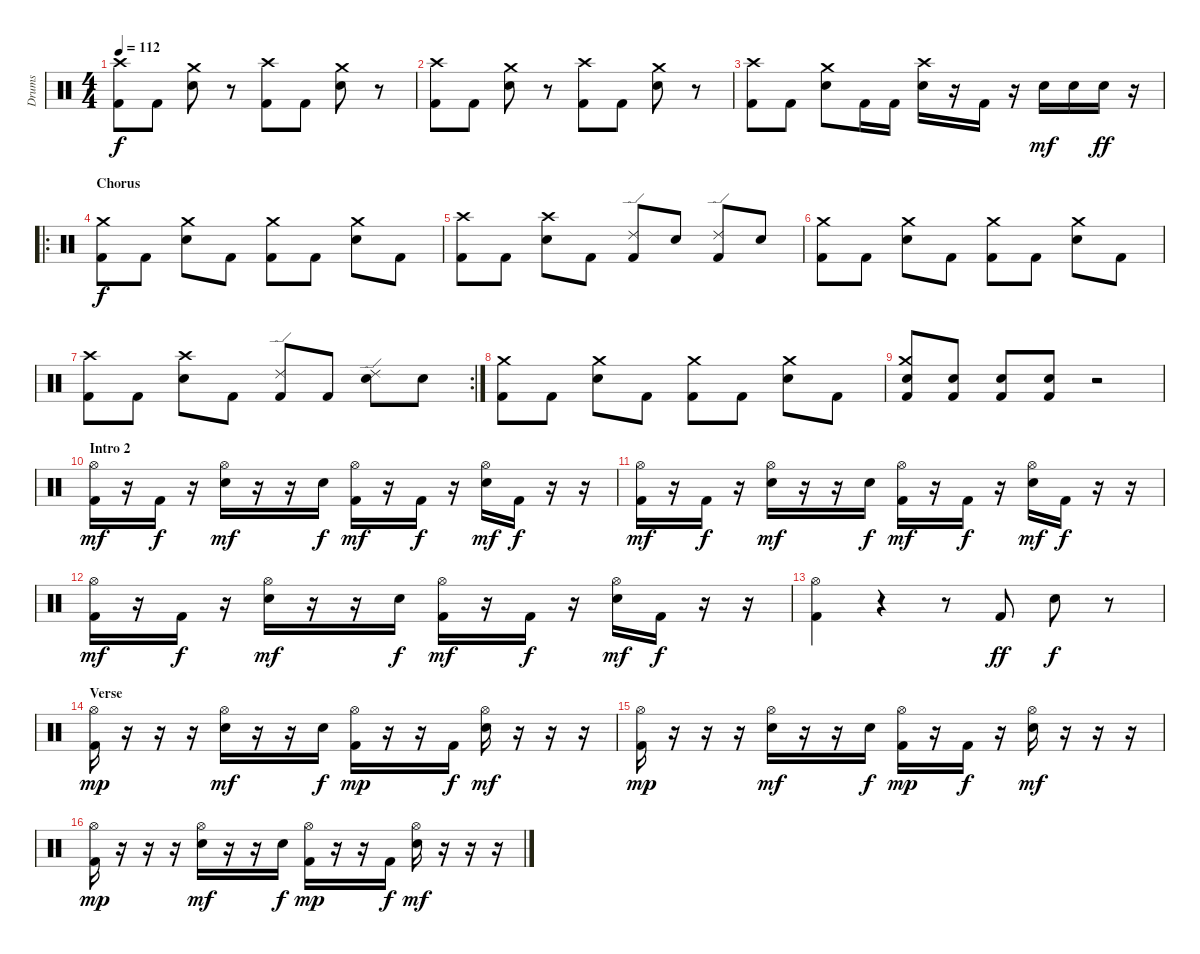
\track ("Drums" "Drums") {instrument percussion}
\staff {score}
\articulation defaults
\ts (4 4)
\tempo 112
\clef neutral
\ks c
("Crash high (hit)" "Kick (hit) 2").8{dy f} "Kick (hit) 2".8 ("Crash medium (hit)" "Snare (hit) 2").8 r.8 ("Crash high (hit)" "Kick (hit) 2").8 "Kick (hit) 2".8 ("Crash medium (hit)" "Snare (hit) 2").8 r.8 |
("Crash high (hit)" "Kick (hit) 2").8 "Kick (hit) 2".8 ("Crash medium (hit)" "Snare (hit) 2").8 r.8 ("Crash high (hit)" "Kick (hit) 2").8 "Kick (hit) 2".8 ("Crash medium (hit)" "Snare (hit) 2").8 r.8 |
("Crash high (hit)" "Kick (hit) 2").8 "Kick (hit) 2".8 ("Crash medium (hit)" "Snare (hit) 2").8 "Kick (hit) 2".16 "Kick (hit) 2".16 ("Crash high (hit)" "Snare (hit) 2").16 r.16 "Kick (hit) 2".16 r.16 "Snare (hit) 2".16{dy mf} "Snare (hit) 2".16 "Snare (hit) 2".16{dy ff} r.16 |
\ro
\section ("" "Chorus")
("Crash medium (hit)" "Kick (hit) 2").8{dy f} "Kick (hit) 2".8 ("Crash medium (hit)" "Snare (hit) 2").8 "Kick (hit) 2".8 ("Crash medium (hit)" "Kick (hit) 2").8 "Kick (hit) 2".8 ("Crash medium (hit)" "Snare (hit) 2").8 "Kick (hit) 2".8 |
("Crash high (hit)" "Kick (hit) 2").8 "Kick (hit) 2".8 ("Crash high (hit)" "Snare (hit) 2").8 "Kick (hit) 2".8 ("Ride (edge) 2" "Kick (hit) 2").8 "Snare (hit) 2".8 ("Ride (edge) 2" "Kick (hit) 2").8 "Snare (hit) 2".8 |
("Crash medium (hit)" "Kick (hit) 2").8 "Kick (hit) 2".8 ("Crash medium (hit)" "Snare (hit) 2").8 "Kick (hit) 2".8 ("Crash medium (hit)" "Kick (hit) 2").8 "Kick (hit) 2".8 ("Crash medium (hit)" "Snare (hit) 2").8 "Kick (hit) 2".8 |
\rc 2
("Crash high (hit)" "Kick (hit) 2").8 "Kick (hit) 2".8 ("Crash high (hit)" "Snare (hit) 2").8 "Kick (hit) 2".8 ("Ride (edge) 2" "Kick (hit) 2").8 "Kick (hit) 2".8 ("Ride (edge) 2" "Snare (hit) 2").8 "Snare (hit) 2".8 |
("Crash medium (hit)" "Kick (hit) 2").8 "Kick (hit) 2".8 ("Crash medium (hit)" "Snare (hit) 2").8 "Kick (hit) 2".8 ("Crash medium (hit)" "Kick (hit) 2").8 "Kick (hit) 2".8 ("Crash medium (hit)" "Snare (hit) 2").8 "Kick (hit) 2".8 |
("Crash medium (hit)" "Snare (hit) 2" "Kick (hit) 2").8 ("Snare (hit) 2" "Kick (hit) 2").8 ("Snare (hit) 2" "Kick (hit) 2").8 ("Snare (hit) 2" "Kick (hit) 2").8 r.2 |
\section ("" "Intro 2")
("Hi-Hat (open)" "Kick (hit) 2").16{dy mf} r.16 "Kick (hit) 2".16{dy f} r.16 ("Hi-Hat (open)" "Snare (hit) 2").16{dy mf} r.16 r.16 "Snare (hit) 2".16{dy f} ("Hi-Hat (open)" "Kick (hit) 2").16{dy mf} r.16 "Kick (hit) 2".16{dy f} r.16 ("Hi-Hat (open)" "Snare (hit) 2").16{dy mf} "Kick (hit) 2".16{dy f} r.16 r.16 |
("Hi-Hat (open)" "Kick (hit) 2").16{dy mf} r.16 "Kick (hit) 2".16{dy f} r.16 ("Hi-Hat (open)" "Snare (hit) 2").16{dy mf} r.16 r.16 "Snare (hit) 2".16{dy f} ("Hi-Hat (open)" "Kick (hit) 2").16{dy mf} r.16 "Kick (hit) 2".16{dy f} r.16 ("Hi-Hat (open)" "Snare (hit) 2").16{dy mf} "Kick (hit) 2".16{dy f} r.16 r.16 |
("Hi-Hat (open)" "Kick (hit) 2").16{dy mf} r.16 "Kick (hit) 2".16{dy f} r.16 ("Hi-Hat (open)" "Snare (hit) 2").16{dy mf} r.16 r.16 "Snare (hit) 2".16{dy f} ("Hi-Hat (open)" "Kick (hit) 2").16{dy mf} r.16 "Kick (hit) 2".16{dy f} r.16 ("Hi-Hat (open)" "Snare (hit) 2").16{dy mf} "Kick (hit) 2".16{dy f} r.16 r.16 |
("Hi-Hat (open)" "Kick (hit) 2").4 r.4 r.8 "Kick (hit) 2".8{dy ff} "Snare (hit) 2".8{dy f} r.8 |
\section ("" "Verse")
("Hi-Hat (open)" "Kick (hit) 2").16{dy mp} r.16 r.16 r.16 ("Hi-Hat (open)" "Snare (hit) 2").16{dy mf} r.16 r.16 "Snare (hit) 2".16{dy f} ("Hi-Hat (open)" "Kick (hit) 2").16{dy mp} r.16 r.16 "Kick (hit) 2".16{dy f} ("Hi-Hat (open)" "Snare (hit) 2").16{dy mf} r.16 r.16 r.16 |
("Hi-Hat (open)" "Kick (hit) 2").16{dy mp} r.16 r.16 r.16 ("Hi-Hat (open)" "Snare (hit) 2").16{dy mf} r.16 r.16 "Snare (hit) 2".16{dy f} ("Hi-Hat (open)" "Kick (hit) 2").16{dy mp} r.16 "Kick (hit) 2".16{dy f} r.16 ("Hi-Hat (open)" "Snare (hit) 2").16{dy mf} r.16 r.16 r.16 |
("Hi-Hat (open)" "Kick (hit) 2").16{dy mp} r.16 r.16 r.16 ("Hi-Hat (open)" "Snare (hit) 2").16{dy mf} r.16 r.16 "Snare (hit) 2".16{dy f} ("Hi-Hat (open)" "Kick (hit) 2").16{dy mp} r.16 r.16 "Kick (hit) 2".16{dy f} ("Hi-Hat (open)" "Snare (hit) 2").16{dy mf} r.16 r.16 r.16
